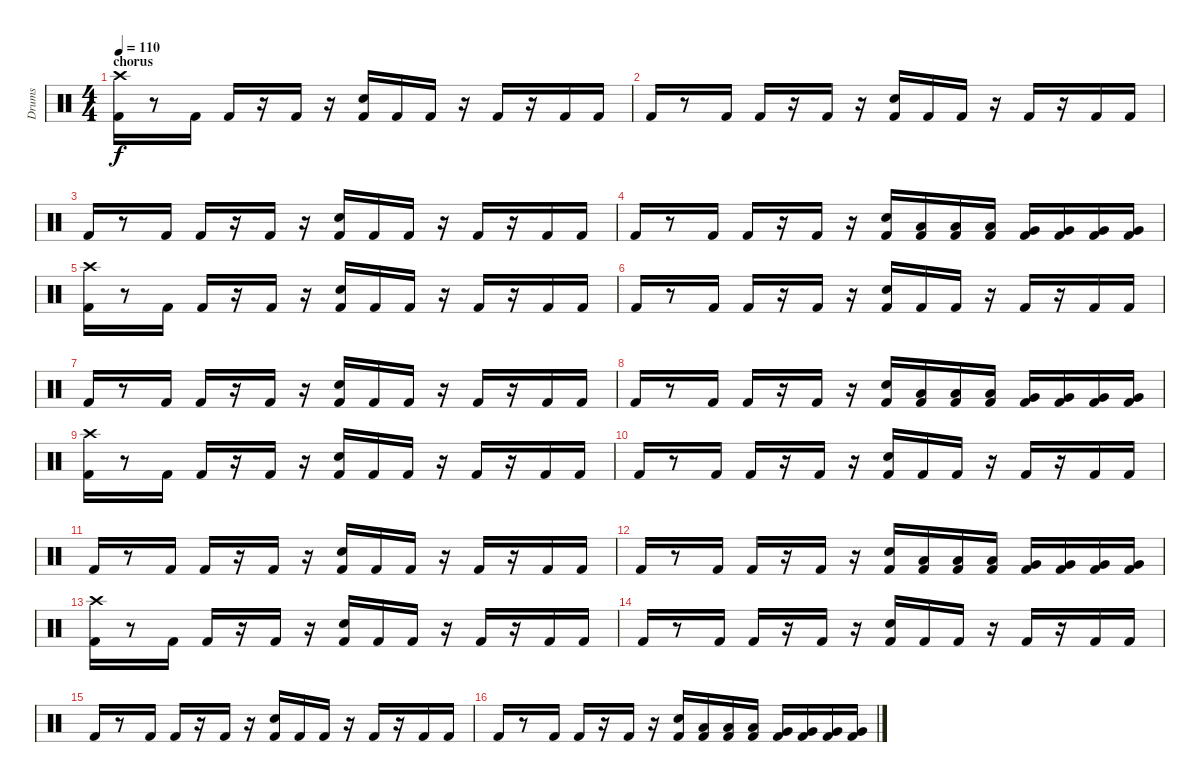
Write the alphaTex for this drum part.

\track ("Drums" "Drums") {instrument percussion}
\staff {score}
\articulation defaults
\ts (4 4)
\section ("" "chorus")
\tempo 110
\clef neutral
\ks c
("Crash high (hit)" "Kick (hit) 2").16{dy f} r.8 "Kick (hit) 2".16 "Kick (hit) 2".16 r.16 "Kick (hit) 2".16 r.16 ("Electric Snare (hit)" "Kick (hit) 2").16 "Kick (hit) 2".16 "Kick (hit) 2".16 r.16 "Kick (hit) 2".16 r.16 "Kick (hit) 2".16 "Kick (hit) 2".16 |
"Kick (hit) 2".16 r.8 "Kick (hit) 2".16 "Kick (hit) 2".16 r.16 "Kick (hit) 2".16 r.16 ("Electric Snare (hit)" "Kick (hit) 2").16 "Kick (hit) 2".16 "Kick (hit) 2".16 r.16 "Kick (hit) 2".16 r.16 "Kick (hit) 2".16 "Kick (hit) 2".16 |
"Kick (hit) 2".16 r.8 "Kick (hit) 2".16 "Kick (hit) 2".16 r.16 "Kick (hit) 2".16 r.16 ("Electric Snare (hit)" "Kick (hit) 2").16 "Kick (hit) 2".16 "Kick (hit) 2".16 r.16 "Kick (hit) 2".16 r.16 "Kick (hit) 2".16 "Kick (hit) 2".16 |
"Kick (hit) 2".16 r.8 "Kick (hit) 2".16 "Kick (hit) 2".16 r.16 "Kick (hit) 2".16 r.16 ("Electric Snare (hit)" "Kick (hit) 2").16 ("Low Tom (hit)" "Kick (hit) 2").16 ("Low Tom (hit)" "Kick (hit) 2").16 ("Low Tom (hit)" "Kick (hit) 2").16 ("Very Low Tom (hit)" "Kick (hit) 2").16 ("Very Low Tom (hit)" "Kick (hit) 2").16 ("Very Low Tom (hit)" "Kick (hit) 2").16 ("Very Low Tom (hit)" "Kick (hit) 2").16 |
("Crash high (hit)" "Kick (hit) 2").16 r.8 "Kick (hit) 2".16 "Kick (hit) 2".16 r.16 "Kick (hit) 2".16 r.16 ("Electric Snare (hit)" "Kick (hit) 2").16 "Kick (hit) 2".16 "Kick (hit) 2".16 r.16 "Kick (hit) 2".16 r.16 "Kick (hit) 2".16 "Kick (hit) 2".16 |
"Kick (hit) 2".16 r.8 "Kick (hit) 2".16 "Kick (hit) 2".16 r.16 "Kick (hit) 2".16 r.16 ("Electric Snare (hit)" "Kick (hit) 2").16 "Kick (hit) 2".16 "Kick (hit) 2".16 r.16 "Kick (hit) 2".16 r.16 "Kick (hit) 2".16 "Kick (hit) 2".16 |
"Kick (hit) 2".16 r.8 "Kick (hit) 2".16 "Kick (hit) 2".16 r.16 "Kick (hit) 2".16 r.16 ("Electric Snare (hit)" "Kick (hit) 2").16 "Kick (hit) 2".16 "Kick (hit) 2".16 r.16 "Kick (hit) 2".16 r.16 "Kick (hit) 2".16 "Kick (hit) 2".16 |
"Kick (hit) 2".16 r.8 "Kick (hit) 2".16 "Kick (hit) 2".16 r.16 "Kick (hit) 2".16 r.16 ("Electric Snare (hit)" "Kick (hit) 2").16 ("Low Tom (hit)" "Kick (hit) 2").16 ("Low Tom (hit)" "Kick (hit) 2").16 ("Low Tom (hit)" "Kick (hit) 2").16 ("Very Low Tom (hit)" "Kick (hit) 2").16 ("Very Low Tom (hit)" "Kick (hit) 2").16 ("Very Low Tom (hit)" "Kick (hit) 2").16 ("Very Low Tom (hit)" "Kick (hit) 2").16 |
("Crash high (hit)" "Kick (hit) 2").16 r.8 "Kick (hit) 2".16 "Kick (hit) 2".16 r.16 "Kick (hit) 2".16 r.16 ("Electric Snare (hit)" "Kick (hit) 2").16 "Kick (hit) 2".16 "Kick (hit) 2".16 r.16 "Kick (hit) 2".16 r.16 "Kick (hit) 2".16 "Kick (hit) 2".16 |
"Kick (hit) 2".16 r.8 "Kick (hit) 2".16 "Kick (hit) 2".16 r.16 "Kick (hit) 2".16 r.16 ("Electric Snare (hit)" "Kick (hit) 2").16 "Kick (hit) 2".16 "Kick (hit) 2".16 r.16 "Kick (hit) 2".16 r.16 "Kick (hit) 2".16 "Kick (hit) 2".16 |
"Kick (hit) 2".16 r.8 "Kick (hit) 2".16 "Kick (hit) 2".16 r.16 "Kick (hit) 2".16 r.16 ("Electric Snare (hit)" "Kick (hit) 2").16 "Kick (hit) 2".16 "Kick (hit) 2".16 r.16 "Kick (hit) 2".16 r.16 "Kick (hit) 2".16 "Kick (hit) 2".16 |
"Kick (hit) 2".16 r.8 "Kick (hit) 2".16 "Kick (hit) 2".16 r.16 "Kick (hit) 2".16 r.16 ("Electric Snare (hit)" "Kick (hit) 2").16 ("Low Tom (hit)" "Kick (hit) 2").16 ("Low Tom (hit)" "Kick (hit) 2").16 ("Low Tom (hit)" "Kick (hit) 2").16 ("Very Low Tom (hit)" "Kick (hit) 2").16 ("Very Low Tom (hit)" "Kick (hit) 2").16 ("Very Low Tom (hit)" "Kick (hit) 2").16 ("Very Low Tom (hit)" "Kick (hit) 2").16 |
("Crash high (hit)" "Kick (hit) 2").16 r.8 "Kick (hit) 2".16 "Kick (hit) 2".16 r.16 "Kick (hit) 2".16 r.16 ("Electric Snare (hit)" "Kick (hit) 2").16 "Kick (hit) 2".16 "Kick (hit) 2".16 r.16 "Kick (hit) 2".16 r.16 "Kick (hit) 2".16 "Kick (hit) 2".16 |
"Kick (hit) 2".16 r.8 "Kick (hit) 2".16 "Kick (hit) 2".16 r.16 "Kick (hit) 2".16 r.16 ("Electric Snare (hit)" "Kick (hit) 2").16 "Kick (hit) 2".16 "Kick (hit) 2".16 r.16 "Kick (hit) 2".16 r.16 "Kick (hit) 2".16 "Kick (hit) 2".16 |
"Kick (hit) 2".16 r.8 "Kick (hit) 2".16 "Kick (hit) 2".16 r.16 "Kick (hit) 2".16 r.16 ("Electric Snare (hit)" "Kick (hit) 2").16 "Kick (hit) 2".16 "Kick (hit) 2".16 r.16 "Kick (hit) 2".16 r.16 "Kick (hit) 2".16 "Kick (hit) 2".16 |
"Kick (hit) 2".16 r.8 "Kick (hit) 2".16 "Kick (hit) 2".16 r.16 "Kick (hit) 2".16 r.16 ("Electric Snare (hit)" "Kick (hit) 2").16 ("Low Tom (hit)" "Kick (hit) 2").16 ("Low Tom (hit)" "Kick (hit) 2").16 ("Low Tom (hit)" "Kick (hit) 2").16 ("Very Low Tom (hit)" "Kick (hit) 2").16 ("Very Low Tom (hit)" "Kick (hit) 2").16 ("Very Low Tom (hit)" "Kick (hit) 2").16 ("Very Low Tom (hit)" "Kick (hit) 2").16
